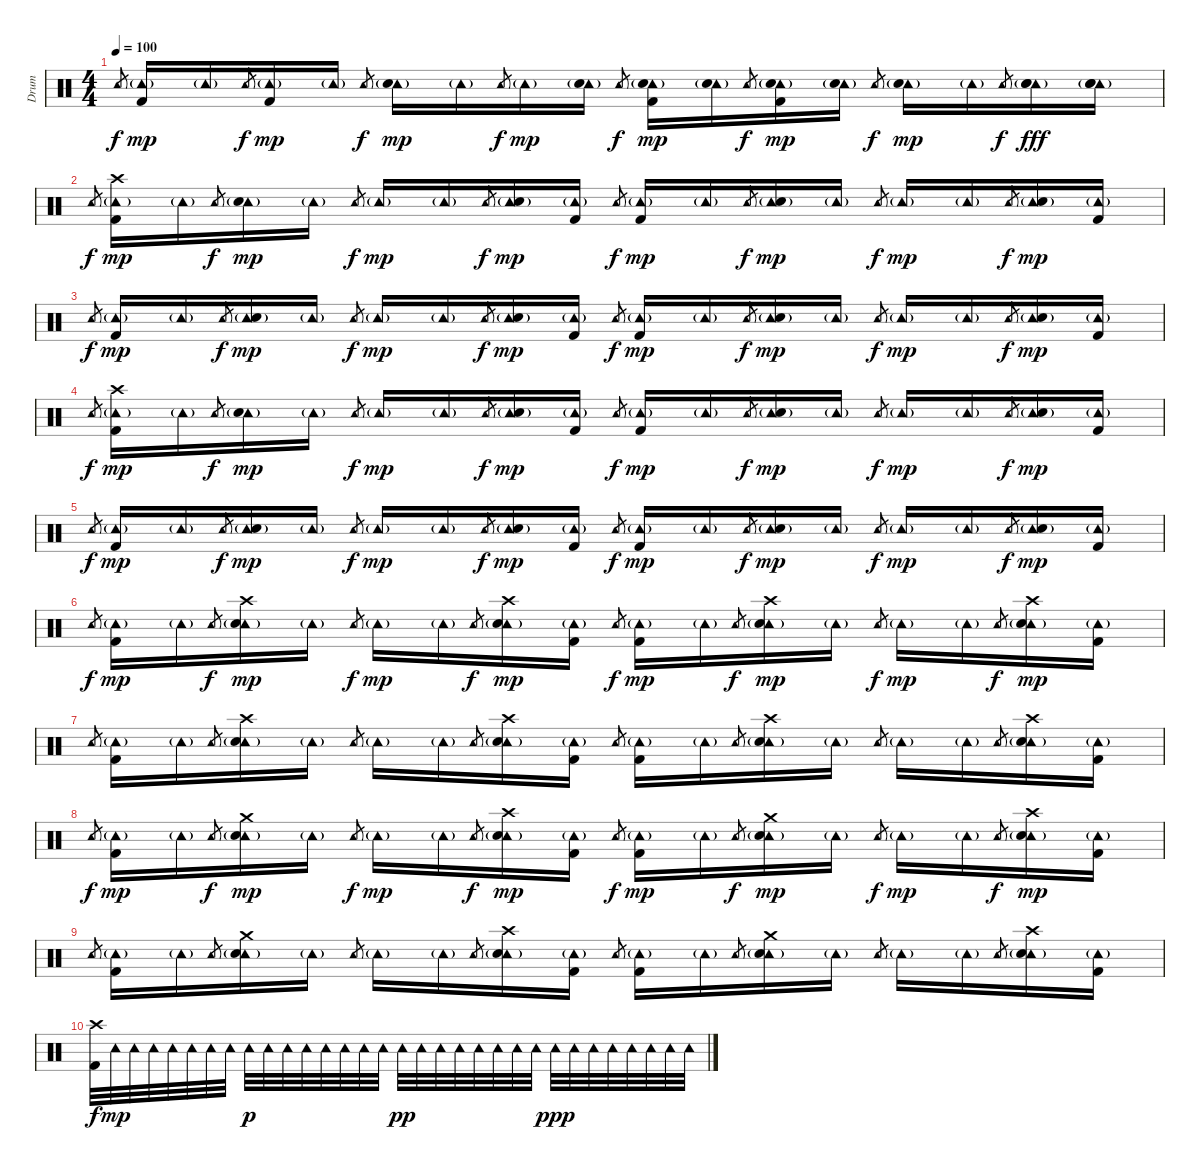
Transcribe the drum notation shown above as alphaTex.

\track ("Drum" "Drum") {instrument percussion}
\staff {score}
\articulation defaults
\ts (4 4)
\tempo 100
\clef neutral
\ks c "Tambourine (hit)".8{gr dy f}
("Tambourine (hit)"{g} "Kick (hit) 2").16{dy mp} "Tambourine (hit)"{g}.16 "Tambourine (hit)".8{gr dy f} ("Tambourine (hit)"{g} "Kick (hit) 2").16{dy mp} "Tambourine (hit)"{g}.16 "Tambourine (hit)".8{gr dy f} ("Tambourine (hit)"{g} "Electric Snare (hit)").16{dy mp} "Tambourine (hit)"{g}.16 "Tambourine (hit)".8{gr dy f} "Tambourine (hit)"{g}.16{dy mp} ("Tambourine (hit)"{g} "Electric Snare (hit)").16 "Tambourine (hit)".8{gr dy f} ("Tambourine (hit)"{g} "Electric Snare (hit)" "Kick (hit) 2").16{dy mp} ("Tambourine (hit)"{g} "Electric Snare (hit)").16 "Tambourine (hit)".8{gr dy f} ("Tambourine (hit)"{g} "Electric Snare (hit)" "Kick (hit) 2").16{dy mp} ("Tambourine (hit)"{g} "Electric Snare (hit)").16 "Tambourine (hit)".8{gr dy f} ("Tambourine (hit)"{g} "Electric Snare (hit)").16{dy mp} "Tambourine (hit)"{g}.16 "Tambourine (hit)".8{gr dy f} ("Tambourine (hit)"{g} "Electric Snare (hit)" "Electric Snare (hit)").16{dy fff} ("Tambourine (hit)"{g} "Electric Snare (hit)" "Electric Snare (hit)").16 |
"Tambourine (hit)".8{gr dy f} ("Crash high (hit)" "Tambourine (hit)"{g} "Kick (hit) 2").16{dy mp} "Tambourine (hit)"{g}.16 "Tambourine (hit)".8{gr dy f} ("Tambourine (hit)"{g} "Electric Snare (hit)").16{dy mp} "Tambourine (hit)"{g}.16 "Tambourine (hit)".8{gr dy f} "Tambourine (hit)"{g}.16{dy mp} "Tambourine (hit)"{g}.16 "Tambourine (hit)".8{gr dy f} ("Tambourine (hit)"{g} "Electric Snare (hit)").16{dy mp} ("Tambourine (hit)"{g} "Kick (hit) 2").16 "Tambourine (hit)".8{gr dy f} ("Tambourine (hit)"{g} "Kick (hit) 2").16{dy mp} "Tambourine (hit)"{g}.16 "Tambourine (hit)".8{gr dy f} ("Tambourine (hit)"{g} "Electric Snare (hit)").16{dy mp} "Tambourine (hit)"{g}.16 "Tambourine (hit)".8{gr dy f} "Tambourine (hit)"{g}.16{dy mp} "Tambourine (hit)"{g}.16 "Tambourine (hit)".8{gr dy f} ("Tambourine (hit)"{g} "Electric Snare (hit)").16{dy mp} ("Tambourine (hit)"{g} "Kick (hit) 2").16 |
"Tambourine (hit)".8{gr dy f} ("Tambourine (hit)"{g} "Kick (hit) 2").16{dy mp} "Tambourine (hit)"{g}.16 "Tambourine (hit)".8{gr dy f} ("Tambourine (hit)"{g} "Electric Snare (hit)").16{dy mp} "Tambourine (hit)"{g}.16 "Tambourine (hit)".8{gr dy f} "Tambourine (hit)"{g}.16{dy mp} "Tambourine (hit)"{g}.16 "Tambourine (hit)".8{gr dy f} ("Tambourine (hit)"{g} "Electric Snare (hit)").16{dy mp} ("Tambourine (hit)"{g} "Kick (hit) 2").16 "Tambourine (hit)".8{gr dy f} ("Tambourine (hit)"{g} "Kick (hit) 2").16{dy mp} "Tambourine (hit)"{g}.16 "Tambourine (hit)".8{gr dy f} ("Tambourine (hit)"{g} "Electric Snare (hit)").16{dy mp} "Tambourine (hit)"{g}.16 "Tambourine (hit)".8{gr dy f} "Tambourine (hit)"{g}.16{dy mp} "Tambourine (hit)"{g}.16 "Tambourine (hit)".8{gr dy f} ("Tambourine (hit)"{g} "Electric Snare (hit)").16{dy mp} ("Tambourine (hit)"{g} "Kick (hit) 2").16 |
"Tambourine (hit)".8{gr dy f} ("Crash high (hit)" "Tambourine (hit)"{g} "Kick (hit) 2").16{dy mp} "Tambourine (hit)"{g}.16 "Tambourine (hit)".8{gr dy f} ("Tambourine (hit)"{g} "Electric Snare (hit)").16{dy mp} "Tambourine (hit)"{g}.16 "Tambourine (hit)".8{gr dy f} "Tambourine (hit)"{g}.16{dy mp} "Tambourine (hit)"{g}.16 "Tambourine (hit)".8{gr dy f} ("Tambourine (hit)"{g} "Electric Snare (hit)").16{dy mp} ("Tambourine (hit)"{g} "Kick (hit) 2").16 "Tambourine (hit)".8{gr dy f} ("Tambourine (hit)"{g} "Kick (hit) 2").16{dy mp} "Tambourine (hit)"{g}.16 "Tambourine (hit)".8{gr dy f} ("Tambourine (hit)"{g} "Electric Snare (hit)").16{dy mp} "Tambourine (hit)"{g}.16 "Tambourine (hit)".8{gr dy f} "Tambourine (hit)"{g}.16{dy mp} "Tambourine (hit)"{g}.16 "Tambourine (hit)".8{gr dy f} ("Tambourine (hit)"{g} "Electric Snare (hit)").16{dy mp} ("Tambourine (hit)"{g} "Kick (hit) 2").16 |
"Tambourine (hit)".8{gr dy f} ("Tambourine (hit)"{g} "Kick (hit) 2").16{dy mp} "Tambourine (hit)"{g}.16 "Tambourine (hit)".8{gr dy f} ("Tambourine (hit)"{g} "Electric Snare (hit)").16{dy mp} "Tambourine (hit)"{g}.16 "Tambourine (hit)".8{gr dy f} "Tambourine (hit)"{g}.16{dy mp} "Tambourine (hit)"{g}.16 "Tambourine (hit)".8{gr dy f} ("Tambourine (hit)"{g} "Electric Snare (hit)").16{dy mp} ("Tambourine (hit)"{g} "Kick (hit) 2").16 "Tambourine (hit)".8{gr dy f} ("Tambourine (hit)"{g} "Kick (hit) 2").16{dy mp} "Tambourine (hit)"{g}.16 "Tambourine (hit)".8{gr dy f} ("Tambourine (hit)"{g} "Electric Snare (hit)").16{dy mp} "Tambourine (hit)"{g}.16 "Tambourine (hit)".8{gr dy f} "Tambourine (hit)"{g}.16{dy mp} "Tambourine (hit)"{g}.16 "Tambourine (hit)".8{gr dy f} ("Tambourine (hit)"{g} "Electric Snare (hit)").16{dy mp} ("Tambourine (hit)"{g} "Kick (hit) 2").16 |
"Tambourine (hit)".8{gr dy f} ("Tambourine (hit)"{g} "Kick (hit) 2").16{dy mp} "Tambourine (hit)"{g}.16 "Tambourine (hit)".8{gr dy f} ("Crash high (hit)" "Tambourine (hit)"{g} "Electric Snare (hit)").16{dy mp} "Tambourine (hit)"{g}.16 "Tambourine (hit)".8{gr dy f} "Tambourine (hit)"{g}.16{dy mp} "Tambourine (hit)"{g}.16 "Tambourine (hit)".8{gr dy f} ("Crash high (hit)" "Tambourine (hit)"{g} "Electric Snare (hit)").16{dy mp} ("Tambourine (hit)"{g} "Kick (hit) 2").16 "Tambourine (hit)".8{gr dy f} ("Tambourine (hit)"{g} "Kick (hit) 2").16{dy mp} "Tambourine (hit)"{g}.16 "Tambourine (hit)".8{gr dy f} ("Crash high (hit)" "Tambourine (hit)"{g} "Electric Snare (hit)").16{dy mp} "Tambourine (hit)"{g}.16 "Tambourine (hit)".8{gr dy f} "Tambourine (hit)"{g}.16{dy mp} "Tambourine (hit)"{g}.16 "Tambourine (hit)".8{gr dy f} ("Crash high (hit)" "Tambourine (hit)"{g} "Electric Snare (hit)").16{dy mp} ("Tambourine (hit)"{g} "Kick (hit) 2").16 |
"Tambourine (hit)".8{gr} ("Tambourine (hit)"{g} "Kick (hit) 2").16 "Tambourine (hit)"{g}.16 "Tambourine (hit)".8{gr} ("Crash high (hit)" "Tambourine (hit)"{g} "Electric Snare (hit)").16 "Tambourine (hit)"{g}.16 "Tambourine (hit)".8{gr} "Tambourine (hit)"{g}.16 "Tambourine (hit)"{g}.16 "Tambourine (hit)".8{gr} ("Crash high (hit)" "Tambourine (hit)"{g} "Electric Snare (hit)").16 ("Tambourine (hit)"{g} "Kick (hit) 2").16 "Tambourine (hit)".8{gr} ("Tambourine (hit)"{g} "Kick (hit) 2").16 "Tambourine (hit)"{g}.16 "Tambourine (hit)".8{gr} ("Crash high (hit)" "Tambourine (hit)"{g} "Electric Snare (hit)").16 "Tambourine (hit)"{g}.16 "Tambourine (hit)".8{gr} "Tambourine (hit)"{g}.16 "Tambourine (hit)"{g}.16 "Tambourine (hit)".8{gr} ("Crash high (hit)" "Tambourine (hit)"{g} "Electric Snare (hit)").16 ("Tambourine (hit)"{g} "Kick (hit) 2").16 |
"Tambourine (hit)".8{gr dy f} ("Tambourine (hit)"{g} "Kick (hit) 2").16{dy mp} "Tambourine (hit)"{g}.16 "Tambourine (hit)".8{gr dy f} ("Crash medium (hit)" "Tambourine (hit)"{g} "Electric Snare (hit)").16{dy mp} "Tambourine (hit)"{g}.16 "Tambourine (hit)".8{gr dy f} "Tambourine (hit)"{g}.16{dy mp} "Tambourine (hit)"{g}.16 "Tambourine (hit)".8{gr dy f} ("Crash high (hit)" "Tambourine (hit)"{g} "Electric Snare (hit)").16{dy mp} ("Tambourine (hit)"{g} "Kick (hit) 2").16 "Tambourine (hit)".8{gr dy f} ("Tambourine (hit)"{g} "Kick (hit) 2").16{dy mp} "Tambourine (hit)"{g}.16 "Tambourine (hit)".8{gr dy f} ("Crash medium (hit)" "Tambourine (hit)"{g} "Electric Snare (hit)").16{dy mp} "Tambourine (hit)"{g}.16 "Tambourine (hit)".8{gr dy f} "Tambourine (hit)"{g}.16{dy mp} "Tambourine (hit)"{g}.16 "Tambourine (hit)".8{gr dy f} ("Crash high (hit)" "Tambourine (hit)"{g} "Electric Snare (hit)").16{dy mp} ("Tambourine (hit)"{g} "Kick (hit) 2").16 |
"Tambourine (hit)".8{gr} ("Tambourine (hit)"{g} "Kick (hit) 2").16 "Tambourine (hit)"{g}.16 "Tambourine (hit)".8{gr} ("Crash medium (hit)" "Tambourine (hit)"{g} "Electric Snare (hit)").16 "Tambourine (hit)"{g}.16 "Tambourine (hit)".8{gr} "Tambourine (hit)"{g}.16 "Tambourine (hit)"{g}.16 "Tambourine (hit)".8{gr} ("Crash high (hit)" "Tambourine (hit)"{g} "Electric Snare (hit)").16 ("Tambourine (hit)"{g} "Kick (hit) 2").16 "Tambourine (hit)".8{gr} ("Tambourine (hit)"{g} "Kick (hit) 2").16 "Tambourine (hit)"{g}.16 "Tambourine (hit)".8{gr} ("Crash medium (hit)" "Tambourine (hit)"{g} "Electric Snare (hit)").16 "Tambourine (hit)"{g}.16 "Tambourine (hit)".8{gr} "Tambourine (hit)"{g}.16 "Tambourine (hit)"{g}.16 "Tambourine (hit)".8{gr} ("Crash high (hit)" "Tambourine (hit)"{g} "Electric Snare (hit)").16 ("Tambourine (hit)"{g} "Kick (hit) 2").16 |
("Crash high (hit)" "Kick (hit) 2").32{dy f} "Tambourine (hit)".32{dy mp} "Tambourine (hit)".32 "Tambourine (hit)".32 "Tambourine (hit)".32 "Tambourine (hit)".32 "Tambourine (hit)".32 "Tambourine (hit)".32 "Tambourine (hit)".32{dy p} "Tambourine (hit)".32 "Tambourine (hit)".32 "Tambourine (hit)".32 "Tambourine (hit)".32 "Tambourine (hit)".32 "Tambourine (hit)".32 "Tambourine (hit)".32 "Tambourine (hit)".32{dy pp} "Tambourine (hit)".32 "Tambourine (hit)".32 "Tambourine (hit)".32 "Tambourine (hit)".32 "Tambourine (hit)".32 "Tambourine (hit)".32 "Tambourine (hit)".32 "Tambourine (hit)".32{dy ppp} "Tambourine (hit)".32 "Tambourine (hit)".32 "Tambourine (hit)".32 "Tambourine (hit)".32 "Tambourine (hit)".32 "Tambourine (hit)".32 "Tambourine (hit)".32
